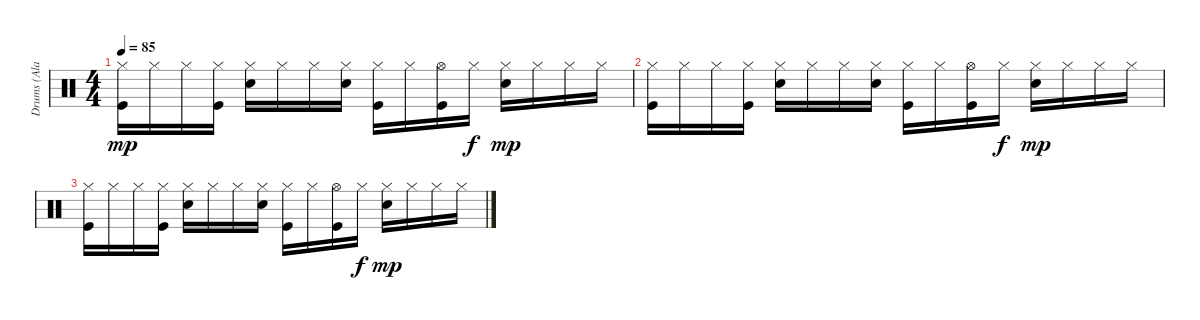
\track ("Drums (Alan White)" "Drums (Ala") {instrument percussion}
\staff {score}
\articulation defaults
\ts (4 4)
\tempo 85
\clef neutral
\ks c
("Hi-Hat (closed)" "Kick (hit)").16{dy mp} "Hi-Hat (closed)".16 "Hi-Hat (closed)".16 ("Hi-Hat (closed)" "Kick (hit)").16 ("Hi-Hat (closed)" "Snare (hit) 2").16 "Hi-Hat (closed)".16 "Hi-Hat (closed)".16 ("Hi-Hat (closed)" "Snare (hit) 2").16 ("Hi-Hat (closed)" "Kick (hit)").16 "Hi-Hat (closed)".16 ("Hi-Hat (open)" "Kick (hit)").16 "Hi-Hat (closed)".16{dy f} ("Hi-Hat (closed)" "Snare (hit) 2").16{dy mp} "Hi-Hat (closed)".16 "Hi-Hat (closed)".16 "Hi-Hat (closed)".16 |
("Hi-Hat (closed)" "Kick (hit)").16{volume 0} "Hi-Hat (closed)".16 "Hi-Hat (closed)".16 ("Hi-Hat (closed)" "Kick (hit)").16 ("Hi-Hat (closed)" "Snare (hit) 2").16 "Hi-Hat (closed)".16 "Hi-Hat (closed)".16 ("Hi-Hat (closed)" "Snare (hit) 2").16 ("Hi-Hat (closed)" "Kick (hit)").16 "Hi-Hat (closed)".16 ("Hi-Hat (open)" "Kick (hit)").16 "Hi-Hat (closed)".16{dy f} ("Hi-Hat (closed)" "Snare (hit) 2").16{dy mp} "Hi-Hat (closed)".16 "Hi-Hat (closed)".16 "Hi-Hat (closed)".16 |
("Hi-Hat (closed)" "Kick (hit)").16 "Hi-Hat (closed)".16 "Hi-Hat (closed)".16 ("Hi-Hat (closed)" "Kick (hit)").16 ("Hi-Hat (closed)" "Snare (hit) 2").16 "Hi-Hat (closed)".16 "Hi-Hat (closed)".16 ("Hi-Hat (closed)" "Snare (hit) 2").16 ("Hi-Hat (closed)" "Kick (hit)").16 "Hi-Hat (closed)".16 ("Hi-Hat (open)" "Kick (hit)").16 "Hi-Hat (closed)".16{dy f} ("Hi-Hat (closed)" "Snare (hit) 2").16{dy mp} "Hi-Hat (closed)".16 "Hi-Hat (closed)".16 "Hi-Hat (closed)".16
